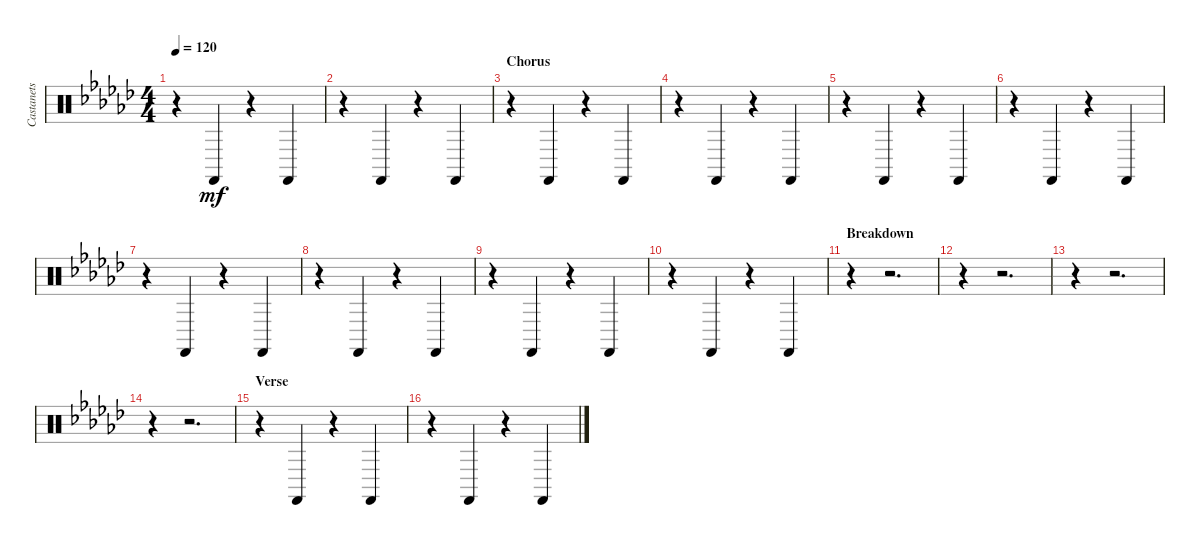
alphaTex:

\track ("Castanets" "Castanets") {instrument percussion}
\staff {score}
\articulation defaults
\ts (4 4)
\tempo 120
\clef neutral
\ks ebminor
r.4{dy mf} "Castanets (hit)".4 r.4 "Castanets (hit)".4 |
r.4 "Castanets (hit)".4 r.4 "Castanets (hit)".4 |
\section ("" "Chorus")
r.4 "Castanets (hit)".4 r.4 "Castanets (hit)".4 |
r.4 "Castanets (hit)".4 r.4 "Castanets (hit)".4 |
r.4 "Castanets (hit)".4 r.4 "Castanets (hit)".4 |
r.4 "Castanets (hit)".4 r.4 "Castanets (hit)".4 |
r.4 "Castanets (hit)".4 r.4 "Castanets (hit)".4 |
r.4 "Castanets (hit)".4 r.4 "Castanets (hit)".4 |
r.4 "Castanets (hit)".4 r.4 "Castanets (hit)".4 |
r.4 "Castanets (hit)".4 r.4 "Castanets (hit)".4 |
\section ("" "Breakdown")
r.4 r.2{d} |
r.4 r.2{d} |
r.4 r.2{d} |
r.4 r.2{d} |
\section ("" "Verse")
r.4 "Castanets (hit)".4 r.4 "Castanets (hit)".4 |
r.4 "Castanets (hit)".4 r.4 "Castanets (hit)".4
